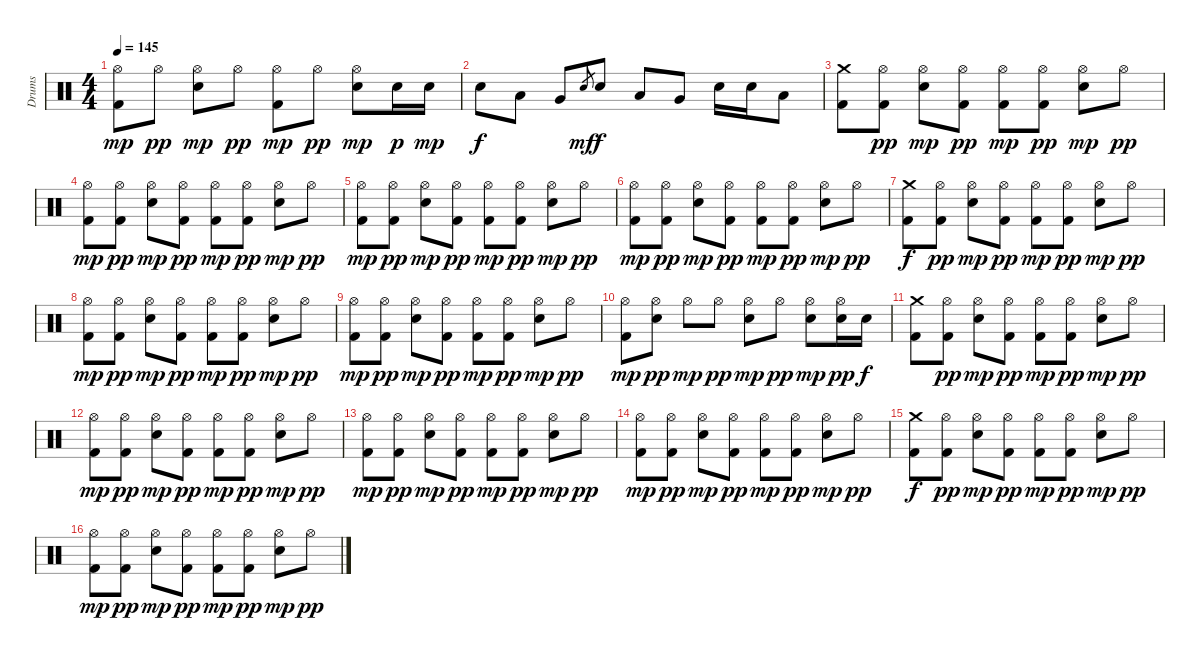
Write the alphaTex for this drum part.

\track ("Drums" "Drums") {instrument percussion}
\staff {score}
\articulation defaults
\ts (4 4)
\tempo 145
\clef neutral
\ks c
("Hi-Hat (open)" "Kick (hit) 2").8{dy mp} "Hi-Hat (open)".8{dy pp} ("Hi-Hat (open)" "Snare (hit) 2").8{dy mp} "Hi-Hat (open)".8{dy pp} ("Hi-Hat (open)" "Kick (hit) 2").8{dy mp} "Hi-Hat (open)".8{dy pp} ("Hi-Hat (open)" "Snare (hit) 2").8{dy mp} "Snare (hit) 2".16{dy p} "Snare (hit) 2".16{dy mp} |
"Snare (hit) 2".8{dy f} "Low Tom (hit)".8 "Very Low Tom (hit)".8 "Snare (hit) 2".8{gr dy mf} "Snare (hit) 2".8{dy f} "Low Tom (hit)".8 "Very Low Tom (hit)".8 "Snare (hit) 2".16 "Snare (hit) 2".16 "Low Tom (hit)".8 |
("Crash medium (hit)" "Kick (hit) 2").8 ("Hi-Hat (open)" "Kick (hit) 2").8{dy pp} ("Hi-Hat (open)" "Snare (hit) 2").8{dy mp} ("Hi-Hat (open)" "Kick (hit) 2").8{dy pp} ("Hi-Hat (open)" "Kick (hit) 2").8{dy mp} ("Hi-Hat (open)" "Kick (hit) 2").8{dy pp} ("Hi-Hat (open)" "Snare (hit) 2").8{dy mp} "Hi-Hat (open)".8{dy pp} |
("Hi-Hat (open)" "Kick (hit) 2").8{dy mp} ("Hi-Hat (open)" "Kick (hit) 2").8{dy pp} ("Hi-Hat (open)" "Snare (hit) 2").8{dy mp} ("Hi-Hat (open)" "Kick (hit) 2").8{dy pp} ("Hi-Hat (open)" "Kick (hit) 2").8{dy mp} ("Hi-Hat (open)" "Kick (hit) 2").8{dy pp} ("Hi-Hat (open)" "Snare (hit) 2").8{dy mp} "Hi-Hat (open)".8{dy pp} |
("Hi-Hat (open)" "Kick (hit) 2").8{dy mp} ("Hi-Hat (open)" "Kick (hit) 2").8{dy pp} ("Hi-Hat (open)" "Snare (hit) 2").8{dy mp} ("Hi-Hat (open)" "Kick (hit) 2").8{dy pp} ("Hi-Hat (open)" "Kick (hit) 2").8{dy mp} ("Hi-Hat (open)" "Kick (hit) 2").8{dy pp} ("Hi-Hat (open)" "Snare (hit) 2").8{dy mp} "Hi-Hat (open)".8{dy pp} |
("Hi-Hat (open)" "Kick (hit) 2").8{dy mp} ("Hi-Hat (open)" "Kick (hit) 2").8{dy pp} ("Hi-Hat (open)" "Snare (hit) 2").8{dy mp} ("Hi-Hat (open)" "Kick (hit) 2").8{dy pp} ("Hi-Hat (open)" "Kick (hit) 2").8{dy mp} ("Hi-Hat (open)" "Kick (hit) 2").8{dy pp} ("Hi-Hat (open)" "Snare (hit) 2").8{dy mp} "Hi-Hat (open)".8{dy pp} |
("Crash medium (hit)" "Kick (hit) 2").8{dy f} ("Hi-Hat (open)" "Kick (hit) 2").8{dy pp} ("Hi-Hat (open)" "Snare (hit) 2").8{dy mp} ("Hi-Hat (open)" "Kick (hit) 2").8{dy pp} ("Hi-Hat (open)" "Kick (hit) 2").8{dy mp} ("Hi-Hat (open)" "Kick (hit) 2").8{dy pp} ("Hi-Hat (open)" "Snare (hit) 2").8{dy mp} "Hi-Hat (open)".8{dy pp} |
("Hi-Hat (open)" "Kick (hit) 2").8{dy mp} ("Hi-Hat (open)" "Kick (hit) 2").8{dy pp} ("Hi-Hat (open)" "Snare (hit) 2").8{dy mp} ("Hi-Hat (open)" "Kick (hit) 2").8{dy pp} ("Hi-Hat (open)" "Kick (hit) 2").8{dy mp} ("Hi-Hat (open)" "Kick (hit) 2").8{dy pp} ("Hi-Hat (open)" "Snare (hit) 2").8{dy mp} "Hi-Hat (open)".8{dy pp} |
("Hi-Hat (open)" "Kick (hit) 2").8{dy mp} ("Hi-Hat (open)" "Kick (hit) 2").8{dy pp} ("Hi-Hat (open)" "Snare (hit) 2").8{dy mp} ("Hi-Hat (open)" "Kick (hit) 2").8{dy pp} ("Hi-Hat (open)" "Kick (hit) 2").8{dy mp} ("Hi-Hat (open)" "Kick (hit) 2").8{dy pp} ("Hi-Hat (open)" "Snare (hit) 2").8{dy mp} "Hi-Hat (open)".8{dy pp} |
("Hi-Hat (open)" "Kick (hit) 2").8{dy mp} ("Hi-Hat (open)" "Snare (hit) 2").8{dy pp} "Hi-Hat (open)".8{dy mp} "Hi-Hat (open)".8{dy pp} ("Hi-Hat (open)" "Snare (hit) 2").8{dy mp} "Hi-Hat (open)".8{dy pp} ("Hi-Hat (open)" "Snare (hit) 2").8{dy mp} ("Hi-Hat (open)" "Snare (hit) 2").16{dy pp} "Snare (hit) 2".16{dy f} |
("Crash medium (hit)" "Kick (hit) 2").8 ("Hi-Hat (open)" "Kick (hit) 2").8{dy pp} ("Hi-Hat (open)" "Snare (hit) 2").8{dy mp} ("Hi-Hat (open)" "Kick (hit) 2").8{dy pp} ("Hi-Hat (open)" "Kick (hit) 2").8{dy mp} ("Hi-Hat (open)" "Kick (hit) 2").8{dy pp} ("Hi-Hat (open)" "Snare (hit) 2").8{dy mp} "Hi-Hat (open)".8{dy pp} |
("Hi-Hat (open)" "Kick (hit) 2").8{dy mp} ("Hi-Hat (open)" "Kick (hit) 2").8{dy pp} ("Hi-Hat (open)" "Snare (hit) 2").8{dy mp} ("Hi-Hat (open)" "Kick (hit) 2").8{dy pp} ("Hi-Hat (open)" "Kick (hit) 2").8{dy mp} ("Hi-Hat (open)" "Kick (hit) 2").8{dy pp} ("Hi-Hat (open)" "Snare (hit) 2").8{dy mp} "Hi-Hat (open)".8{dy pp} |
("Hi-Hat (open)" "Kick (hit) 2").8{dy mp} ("Hi-Hat (open)" "Kick (hit) 2").8{dy pp} ("Hi-Hat (open)" "Snare (hit) 2").8{dy mp} ("Hi-Hat (open)" "Kick (hit) 2").8{dy pp} ("Hi-Hat (open)" "Kick (hit) 2").8{dy mp} ("Hi-Hat (open)" "Kick (hit) 2").8{dy pp} ("Hi-Hat (open)" "Snare (hit) 2").8{dy mp} "Hi-Hat (open)".8{dy pp} |
("Hi-Hat (open)" "Kick (hit) 2").8{dy mp} ("Hi-Hat (open)" "Kick (hit) 2").8{dy pp} ("Hi-Hat (open)" "Snare (hit) 2").8{dy mp} ("Hi-Hat (open)" "Kick (hit) 2").8{dy pp} ("Hi-Hat (open)" "Kick (hit) 2").8{dy mp} ("Hi-Hat (open)" "Kick (hit) 2").8{dy pp} ("Hi-Hat (open)" "Snare (hit) 2").8{dy mp} "Hi-Hat (open)".8{dy pp} |
("Crash medium (hit)" "Kick (hit) 2").8{dy f} ("Hi-Hat (open)" "Kick (hit) 2").8{dy pp} ("Hi-Hat (open)" "Snare (hit) 2").8{dy mp} ("Hi-Hat (open)" "Kick (hit) 2").8{dy pp} ("Hi-Hat (open)" "Kick (hit) 2").8{dy mp} ("Hi-Hat (open)" "Kick (hit) 2").8{dy pp} ("Hi-Hat (open)" "Snare (hit) 2").8{dy mp} "Hi-Hat (open)".8{dy pp} |
("Hi-Hat (open)" "Kick (hit) 2").8{dy mp} ("Hi-Hat (open)" "Kick (hit) 2").8{dy pp} ("Hi-Hat (open)" "Snare (hit) 2").8{dy mp} ("Hi-Hat (open)" "Kick (hit) 2").8{dy pp} ("Hi-Hat (open)" "Kick (hit) 2").8{dy mp} ("Hi-Hat (open)" "Kick (hit) 2").8{dy pp} ("Hi-Hat (open)" "Snare (hit) 2").8{dy mp} "Hi-Hat (open)".8{dy pp}
